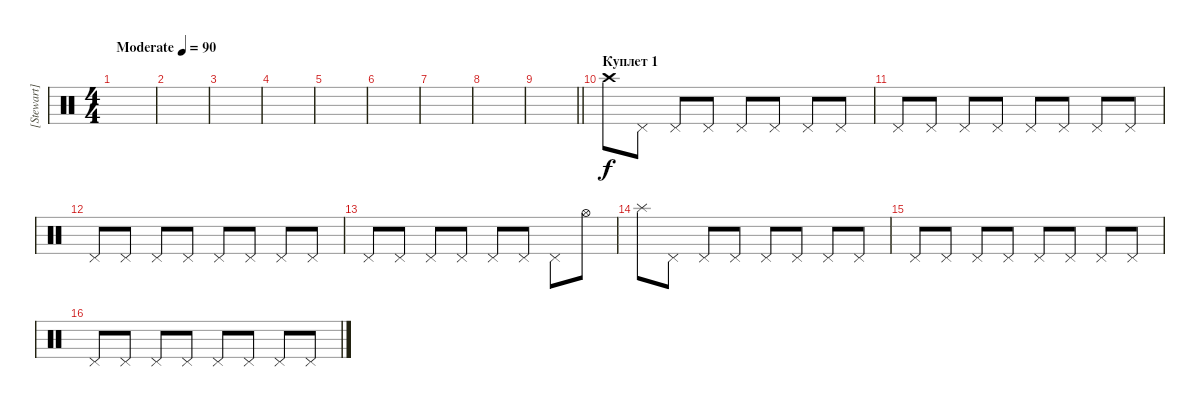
\track ("[Stewart] (hats)" "[Stewart] ") {instrument percussion}
\staff {score}
\articulation defaults
\ts (4 4)
\tempo (90 "Moderate")
\clef neutral
\ks c
|
|
|
|
|
|
|
|
\barLineRight lightlight
|
\section ("" "Куплет 1")
"Crash high (hit)".8 "Pedal Hi-Hat (hit)".8 "Pedal Hi-Hat (hit)".8 "Pedal Hi-Hat (hit)".8 "Pedal Hi-Hat (hit)".8 "Pedal Hi-Hat (hit)".8 "Pedal Hi-Hat (hit)".8 "Pedal Hi-Hat (hit)".8 |
"Pedal Hi-Hat (hit)".8 "Pedal Hi-Hat (hit)".8 "Pedal Hi-Hat (hit)".8 "Pedal Hi-Hat (hit)".8 "Pedal Hi-Hat (hit)".8 "Pedal Hi-Hat (hit)".8 "Pedal Hi-Hat (hit)".8 "Pedal Hi-Hat (hit)".8 |
"Pedal Hi-Hat (hit)".8 "Pedal Hi-Hat (hit)".8 "Pedal Hi-Hat (hit)".8 "Pedal Hi-Hat (hit)".8 "Pedal Hi-Hat (hit)".8 "Pedal Hi-Hat (hit)".8 "Pedal Hi-Hat (hit)".8 "Pedal Hi-Hat (hit)".8 |
"Pedal Hi-Hat (hit)".8 "Pedal Hi-Hat (hit)".8 "Pedal Hi-Hat (hit)".8 "Pedal Hi-Hat (hit)".8 "Pedal Hi-Hat (hit)".8 "Pedal Hi-Hat (hit)".8 "Pedal Hi-Hat (hit)".8 "Hi-Hat (open)".8 |
"Splash (hit)".8 "Pedal Hi-Hat (hit)".8 "Pedal Hi-Hat (hit)".8 "Pedal Hi-Hat (hit)".8 "Pedal Hi-Hat (hit)".8 "Pedal Hi-Hat (hit)".8 "Pedal Hi-Hat (hit)".8 "Pedal Hi-Hat (hit)".8 |
"Pedal Hi-Hat (hit)".8 "Pedal Hi-Hat (hit)".8 "Pedal Hi-Hat (hit)".8 "Pedal Hi-Hat (hit)".8 "Pedal Hi-Hat (hit)".8 "Pedal Hi-Hat (hit)".8 "Pedal Hi-Hat (hit)".8 "Pedal Hi-Hat (hit)".8 |
"Pedal Hi-Hat (hit)".8 "Pedal Hi-Hat (hit)".8 "Pedal Hi-Hat (hit)".8 "Pedal Hi-Hat (hit)".8 "Pedal Hi-Hat (hit)".8 "Pedal Hi-Hat (hit)".8 "Pedal Hi-Hat (hit)".8 "Pedal Hi-Hat (hit)".8
